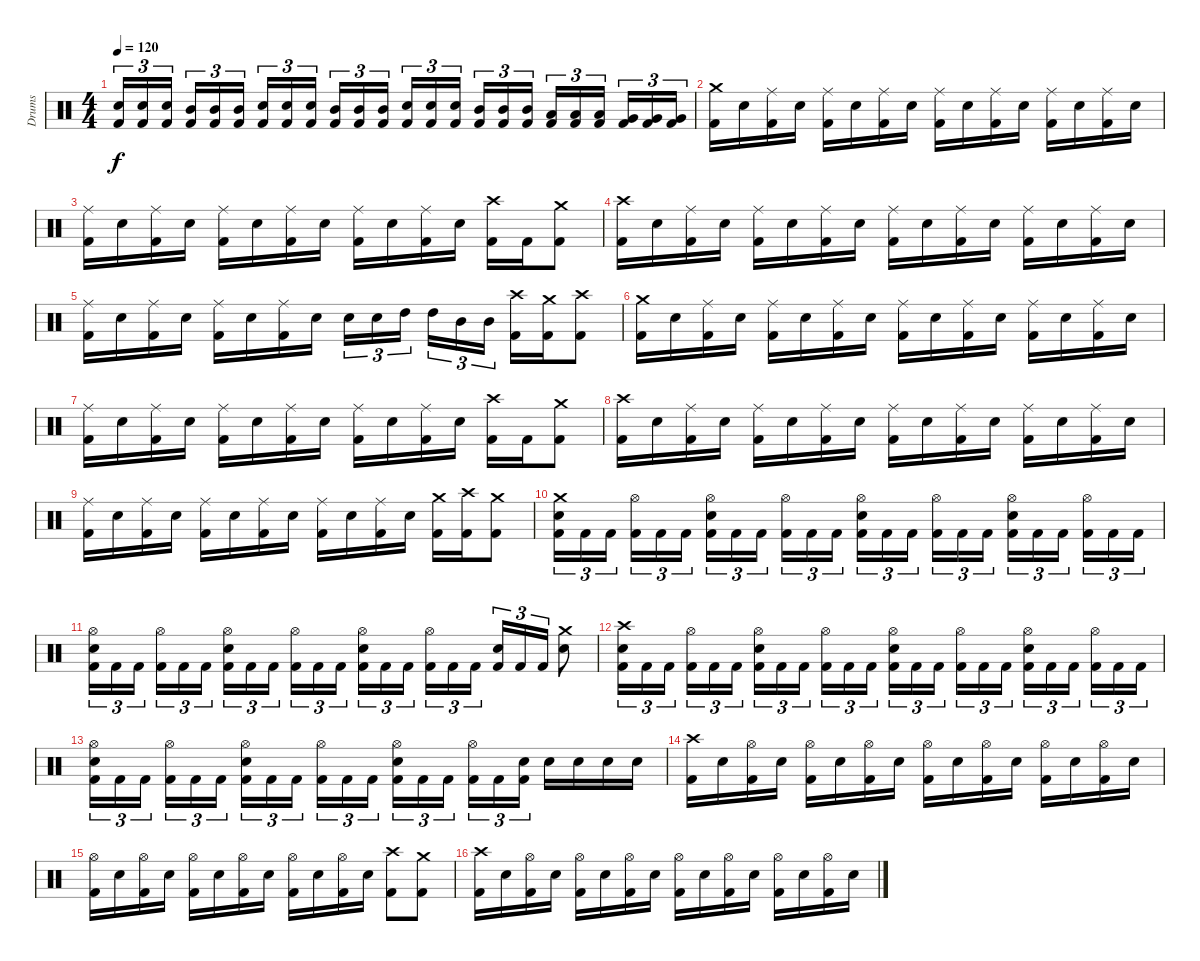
\track ("Drums" "Drums") {instrument percussion}
\staff {score}
\articulation defaults
\ts (4 4)
\tempo 120
\clef neutral
\ks c
("Kick (hit) 2" "Electric Snare (hit)").16{tu (3 2) dy f} ("Kick (hit) 2" "Electric Snare (hit)").16{tu (3 2)} ("Kick (hit) 2" "Electric Snare (hit)").16{tu (3 2)} ("Kick (hit) 2" "Mid Tom (hit)").16{tu (3 2)} ("Kick (hit) 2" "Mid Tom (hit)").16{tu (3 2)} ("Kick (hit) 2" "Mid Tom (hit)").16{tu (3 2)} ("Kick (hit) 2" "Electric Snare (hit)").16{tu (3 2)} ("Kick (hit) 2" "Electric Snare (hit)").16{tu (3 2)} ("Kick (hit) 2" "Electric Snare (hit)").16{tu (3 2)} ("Kick (hit) 2" "Mid Tom (hit)").16{tu (3 2)} ("Kick (hit) 2" "Mid Tom (hit)").16{tu (3 2)} ("Kick (hit) 2" "Mid Tom (hit)").16{tu (3 2)} ("Kick (hit) 2" "Electric Snare (hit)").16{tu (3 2)} ("Kick (hit) 2" "Electric Snare (hit)").16{tu (3 2)} ("Kick (hit) 2" "Electric Snare (hit)").16{tu (3 2)} ("Kick (hit) 2" "Mid Tom (hit)").16{tu (3 2)} ("Kick (hit) 2" "Mid Tom (hit)").16{tu (3 2)} ("Kick (hit) 2" "Mid Tom (hit)").16{tu (3 2)} ("Kick (hit) 2" "Low Tom (hit)").16{tu (3 2)} ("Kick (hit) 2" "Low Tom (hit)").16{tu (3 2)} ("Kick (hit) 2" "Low Tom (hit)").16{tu (3 2)} ("Kick (hit) 2" "Very Low Tom (hit)").16{tu (3 2)} ("Kick (hit) 2" "Very Low Tom (hit)").16{tu (3 2)} ("Kick (hit) 2" "Very Low Tom (hit)").16{tu (3 2)} |
("Kick (hit) 2" "Crash medium (hit)").16 "Electric Snare (hit)".16 ("Kick (hit) 2" "Ride (middle)").16 "Electric Snare (hit)".16 ("Kick (hit) 2" "Ride (middle)").16 "Electric Snare (hit)".16 ("Kick (hit) 2" "Ride (middle)").16 "Electric Snare (hit)".16 ("Kick (hit) 2" "Ride (middle)").16 "Electric Snare (hit)".16 ("Kick (hit) 2" "Ride (middle)").16 "Electric Snare (hit)".16 ("Kick (hit) 2" "Ride (middle)").16 "Electric Snare (hit)".16 ("Kick (hit) 2" "Ride (middle)").16 "Electric Snare (hit)".16 |
("Kick (hit) 2" "Ride (middle)").16 "Electric Snare (hit)".16 ("Kick (hit) 2" "Ride (middle)").16 "Electric Snare (hit)".16 ("Kick (hit) 2" "Ride (middle)").16 "Electric Snare (hit)".16 ("Kick (hit) 2" "Ride (middle)").16 "Electric Snare (hit)".16 ("Kick (hit) 2" "Ride (middle)").16 "Electric Snare (hit)".16 ("Kick (hit) 2" "Ride (middle)").16 "Electric Snare (hit)".16 ("Kick (hit) 2" "Crash high (hit)").16 "Kick (hit) 2".16 ("Kick (hit) 2" "Crash medium (hit)").8 |
("Kick (hit) 2" "Crash high (hit)").16 "Electric Snare (hit)".16 ("Kick (hit) 2" "Ride (middle)").16 "Electric Snare (hit)".16 ("Kick (hit) 2" "Ride (middle)").16 "Electric Snare (hit)".16 ("Kick (hit) 2" "Ride (middle)").16 "Electric Snare (hit)".16 ("Kick (hit) 2" "Ride (middle)").16 "Electric Snare (hit)".16 ("Kick (hit) 2" "Ride (middle)").16 "Electric Snare (hit)".16 ("Kick (hit) 2" "Ride (middle)").16 "Electric Snare (hit)".16 ("Kick (hit) 2" "Ride (middle)").16 "Electric Snare (hit)".16 |
("Kick (hit) 2" "Ride (middle)").16 "Electric Snare (hit)".16 ("Kick (hit) 2" "Ride (middle)").16 "Electric Snare (hit)".16 ("Kick (hit) 2" "Ride (middle)").16 "Electric Snare (hit)".16 ("Kick (hit) 2" "Ride (middle)").16 "Electric Snare (hit)".16 "Electric Snare (hit)".16{tu (3 2)} "Electric Snare (hit)".16{tu (3 2)} "High Tom (hit)".16{tu (3 2)} "High Tom (hit)".16{tu (3 2)} "Mid Tom (hit)".16{tu (3 2)} "Mid Tom (hit)".16{tu (3 2)} ("Kick (hit) 2" "Crash high (hit)").16 ("Kick (hit) 2" "Crash medium (hit)").16 ("Kick (hit) 2" "Crash high (hit)").8 |
("Kick (hit) 2" "Crash medium (hit)").16 "Electric Snare (hit)".16 ("Kick (hit) 2" "Ride (middle)").16 "Electric Snare (hit)".16 ("Kick (hit) 2" "Ride (middle)").16 "Electric Snare (hit)".16 ("Kick (hit) 2" "Ride (middle)").16 "Electric Snare (hit)".16 ("Kick (hit) 2" "Ride (middle)").16 "Electric Snare (hit)".16 ("Kick (hit) 2" "Ride (middle)").16 "Electric Snare (hit)".16 ("Kick (hit) 2" "Ride (middle)").16 "Electric Snare (hit)".16 ("Kick (hit) 2" "Ride (middle)").16 "Electric Snare (hit)".16 |
("Kick (hit) 2" "Ride (middle)").16 "Electric Snare (hit)".16 ("Kick (hit) 2" "Ride (middle)").16 "Electric Snare (hit)".16 ("Kick (hit) 2" "Ride (middle)").16 "Electric Snare (hit)".16 ("Kick (hit) 2" "Ride (middle)").16 "Electric Snare (hit)".16 ("Kick (hit) 2" "Ride (middle)").16 "Electric Snare (hit)".16 ("Kick (hit) 2" "Ride (middle)").16 "Electric Snare (hit)".16 ("Kick (hit) 2" "Crash high (hit)").16 "Kick (hit) 2".16 ("Kick (hit) 2" "Crash medium (hit)").8 |
("Kick (hit) 2" "Crash high (hit)").16 "Electric Snare (hit)".16 ("Kick (hit) 2" "Ride (middle)").16 "Electric Snare (hit)".16 ("Kick (hit) 2" "Ride (middle)").16 "Electric Snare (hit)".16 ("Kick (hit) 2" "Ride (middle)").16 "Electric Snare (hit)".16 ("Kick (hit) 2" "Ride (middle)").16 "Electric Snare (hit)".16 ("Kick (hit) 2" "Ride (middle)").16 "Electric Snare (hit)".16 ("Kick (hit) 2" "Ride (middle)").16 "Electric Snare (hit)".16 ("Kick (hit) 2" "Ride (middle)").16 "Electric Snare (hit)".16 |
("Kick (hit) 2" "Ride (middle)").16 "Electric Snare (hit)".16 ("Kick (hit) 2" "Ride (middle)").16 "Electric Snare (hit)".16 ("Kick (hit) 2" "Ride (middle)").16 "Electric Snare (hit)".16 ("Kick (hit) 2" "Ride (middle)").16 "Electric Snare (hit)".16 ("Kick (hit) 2" "Ride (middle)").16 "Electric Snare (hit)".16 ("Kick (hit) 2" "Ride (middle)").16 "Electric Snare (hit)".16 ("Kick (hit) 2" "Crash medium (hit)").16 ("Kick (hit) 2" "Crash high (hit)").16 ("Kick (hit) 2" "Crash medium (hit)").8 |
("Kick (hit) 2" "Electric Snare (hit)" "Crash medium (hit)").16{tu (3 2)} "Kick (hit) 2".16{tu (3 2)} "Kick (hit) 2".16{tu (3 2)} ("Kick (hit) 2" "Hi-Hat (open)").16{tu (3 2)} "Kick (hit) 2".16{tu (3 2)} "Kick (hit) 2".16{tu (3 2)} ("Kick (hit) 2" "Electric Snare (hit)" "Hi-Hat (open)").16{tu (3 2)} "Kick (hit) 2".16{tu (3 2)} "Kick (hit) 2".16{tu (3 2)} ("Kick (hit) 2" "Hi-Hat (open)").16{tu (3 2)} "Kick (hit) 2".16{tu (3 2)} "Kick (hit) 2".16{tu (3 2)} ("Kick (hit) 2" "Electric Snare (hit)" "Hi-Hat (open)").16{tu (3 2)} "Kick (hit) 2".16{tu (3 2)} "Kick (hit) 2".16{tu (3 2)} ("Kick (hit) 2" "Hi-Hat (open)").16{tu (3 2)} "Kick (hit) 2".16{tu (3 2)} "Kick (hit) 2".16{tu (3 2)} ("Kick (hit) 2" "Electric Snare (hit)" "Hi-Hat (open)").16{tu (3 2)} "Kick (hit) 2".16{tu (3 2)} "Kick (hit) 2".16{tu (3 2)} ("Kick (hit) 2" "Hi-Hat (open)").16{tu (3 2)} "Kick (hit) 2".16{tu (3 2)} "Kick (hit) 2".16{tu (3 2)} |
("Kick (hit) 2" "Electric Snare (hit)" "Hi-Hat (open)").16{tu (3 2)} "Kick (hit) 2".16{tu (3 2)} "Kick (hit) 2".16{tu (3 2)} ("Kick (hit) 2" "Hi-Hat (open)").16{tu (3 2)} "Kick (hit) 2".16{tu (3 2)} "Kick (hit) 2".16{tu (3 2)} ("Kick (hit) 2" "Electric Snare (hit)" "Hi-Hat (open)").16{tu (3 2)} "Kick (hit) 2".16{tu (3 2)} "Kick (hit) 2".16{tu (3 2)} ("Kick (hit) 2" "Hi-Hat (open)").16{tu (3 2)} "Kick (hit) 2".16{tu (3 2)} "Kick (hit) 2".16{tu (3 2)} ("Kick (hit) 2" "Electric Snare (hit)" "Hi-Hat (open)").16{tu (3 2)} "Kick (hit) 2".16{tu (3 2)} "Kick (hit) 2".16{tu (3 2)} ("Kick (hit) 2" "Hi-Hat (open)").16{tu (3 2)} "Kick (hit) 2".16{tu (3 2)} "Kick (hit) 2".16{tu (3 2)} ("Kick (hit) 2" "Electric Snare (hit)").16{tu (3 2)} "Kick (hit) 2".16{tu (3 2)} "Kick (hit) 2".16{tu (3 2)} ("Electric Snare (hit)" "Crash medium (hit)").8 |
("Kick (hit) 2" "Electric Snare (hit)" "Crash high (hit)").16{tu (3 2)} "Kick (hit) 2".16{tu (3 2)} "Kick (hit) 2".16{tu (3 2)} ("Kick (hit) 2" "Hi-Hat (open)").16{tu (3 2)} "Kick (hit) 2".16{tu (3 2)} "Kick (hit) 2".16{tu (3 2)} ("Kick (hit) 2" "Electric Snare (hit)" "Hi-Hat (open)").16{tu (3 2)} "Kick (hit) 2".16{tu (3 2)} "Kick (hit) 2".16{tu (3 2)} ("Kick (hit) 2" "Hi-Hat (open)").16{tu (3 2)} "Kick (hit) 2".16{tu (3 2)} "Kick (hit) 2".16{tu (3 2)} ("Kick (hit) 2" "Electric Snare (hit)" "Hi-Hat (open)").16{tu (3 2)} "Kick (hit) 2".16{tu (3 2)} "Kick (hit) 2".16{tu (3 2)} ("Kick (hit) 2" "Hi-Hat (open)").16{tu (3 2)} "Kick (hit) 2".16{tu (3 2)} "Kick (hit) 2".16{tu (3 2)} ("Kick (hit) 2" "Electric Snare (hit)" "Hi-Hat (open)").16{tu (3 2)} "Kick (hit) 2".16{tu (3 2)} "Kick (hit) 2".16{tu (3 2)} ("Kick (hit) 2" "Hi-Hat (open)").16{tu (3 2)} "Kick (hit) 2".16{tu (3 2)} "Kick (hit) 2".16{tu (3 2)} |
("Kick (hit) 2" "Electric Snare (hit)" "Hi-Hat (open)").16{tu (3 2)} "Kick (hit) 2".16{tu (3 2)} "Kick (hit) 2".16{tu (3 2)} ("Kick (hit) 2" "Hi-Hat (open)").16{tu (3 2)} "Kick (hit) 2".16{tu (3 2)} "Kick (hit) 2".16{tu (3 2)} ("Kick (hit) 2" "Electric Snare (hit)" "Hi-Hat (open)").16{tu (3 2)} "Kick (hit) 2".16{tu (3 2)} "Kick (hit) 2".16{tu (3 2)} ("Kick (hit) 2" "Hi-Hat (open)").16{tu (3 2)} "Kick (hit) 2".16{tu (3 2)} "Kick (hit) 2".16{tu (3 2)} ("Kick (hit) 2" "Electric Snare (hit)" "Hi-Hat (open)").16{tu (3 2)} "Kick (hit) 2".16{tu (3 2)} "Kick (hit) 2".16{tu (3 2)} ("Kick (hit) 2" "Hi-Hat (open)").16{tu (3 2)} "Kick (hit) 2".16{tu (3 2)} ("Kick (hit) 2" "Electric Snare (hit)").16{tu (3 2)} "Electric Snare (hit)".16 "Electric Snare (hit)".16 "Electric Snare (hit)".16 "Electric Snare (hit)".16 |
("Kick (hit) 2" "Crash high (hit)").16 "Electric Snare (hit)".16 ("Kick (hit) 2" "Hi-Hat (open)").16 "Electric Snare (hit)".16 ("Kick (hit) 2" "Hi-Hat (open)").16 "Electric Snare (hit)".16 ("Kick (hit) 2" "Hi-Hat (open)").16 "Electric Snare (hit)".16 ("Kick (hit) 2" "Hi-Hat (open)").16 "Electric Snare (hit)".16 ("Kick (hit) 2" "Hi-Hat (open)").16 "Electric Snare (hit)".16 ("Kick (hit) 2" "Hi-Hat (open)").16 "Electric Snare (hit)".16 ("Kick (hit) 2" "Hi-Hat (open)").16 "Electric Snare (hit)".16 |
("Kick (hit) 2" "Hi-Hat (open)").16 "Electric Snare (hit)".16 ("Kick (hit) 2" "Hi-Hat (open)").16 "Electric Snare (hit)".16 ("Kick (hit) 2" "Hi-Hat (open)").16 "Electric Snare (hit)".16 ("Kick (hit) 2" "Hi-Hat (open)").16 "Electric Snare (hit)".16 ("Kick (hit) 2" "Hi-Hat (open)").16 "Electric Snare (hit)".16 ("Kick (hit) 2" "Hi-Hat (open)").16 "Electric Snare (hit)".16 ("Kick (hit) 2" "Crash high (hit)").8 ("Kick (hit) 2" "Crash medium (hit)").8 |
("Kick (hit) 2" "Crash high (hit)").16 "Electric Snare (hit)".16 ("Kick (hit) 2" "Hi-Hat (open)").16 "Electric Snare (hit)".16 ("Kick (hit) 2" "Hi-Hat (open)").16 "Electric Snare (hit)".16 ("Kick (hit) 2" "Hi-Hat (open)").16 "Electric Snare (hit)".16 ("Kick (hit) 2" "Hi-Hat (open)").16 "Electric Snare (hit)".16 ("Kick (hit) 2" "Hi-Hat (open)").16 "Electric Snare (hit)".16 ("Kick (hit) 2" "Hi-Hat (open)").16 "Electric Snare (hit)".16 ("Kick (hit) 2" "Hi-Hat (open)").16 "Electric Snare (hit)".16
